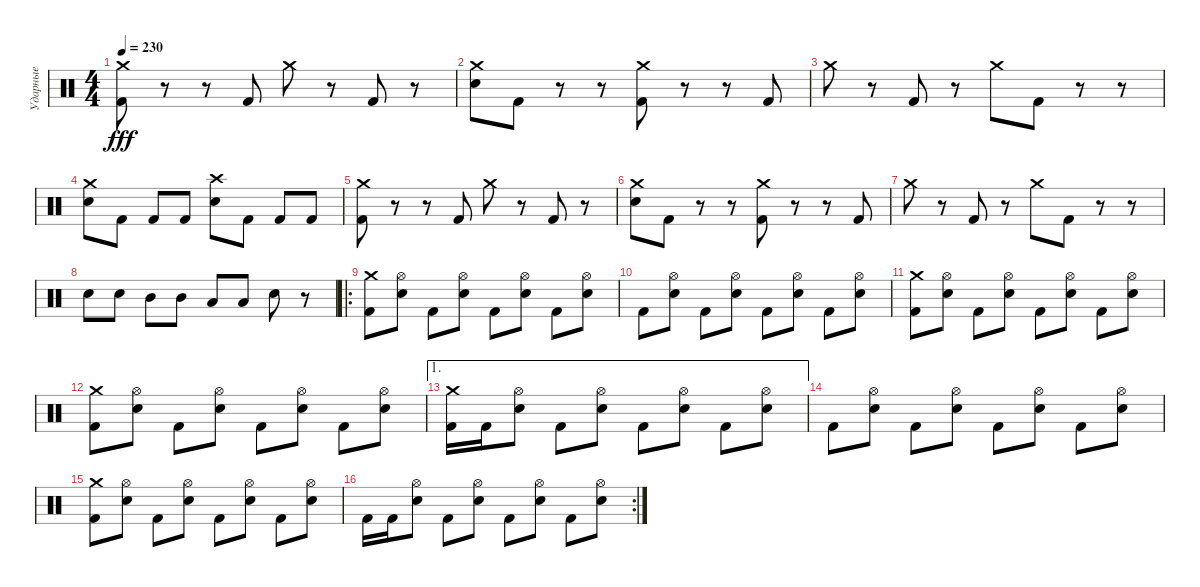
\track ("Ударные" "Ударные") {instrument percussion}
\staff {score}
\articulation defaults
\ts (4 4)
\tempo 230
\clef neutral
\ks c
("Kick (hit) 2" "Crash medium (hit)").8{dy fff} r.8 r.8 "Kick (hit) 2".8 "Crash medium (hit)".8 r.8 "Kick (hit) 2".8 r.8 |
("Electric Snare (hit)" "Crash medium (hit)").8 "Kick (hit) 2".8 r.8 r.8 ("Kick (hit) 2" "Crash medium (hit)").8 r.8 r.8 "Kick (hit) 2".8 |
"Crash medium (hit)".8 r.8 "Kick (hit) 2".8 r.8 "Crash medium (hit)".8 "Kick (hit) 2".8 r.8 r.8 |
("Electric Snare (hit)" "Crash medium (hit)").8 "Kick (hit) 2".8 "Kick (hit) 2".8 "Kick (hit) 2".8 ("Electric Snare (hit)" "Crash high (hit)").8 "Kick (hit) 2".8 "Kick (hit) 2".8 "Kick (hit) 2".8 |
("Kick (hit) 2" "Crash medium (hit)").8 r.8 r.8 "Kick (hit) 2".8 "Crash medium (hit)".8 r.8 "Kick (hit) 2".8 r.8 |
("Electric Snare (hit)" "Crash medium (hit)").8 "Kick (hit) 2".8 r.8 r.8 ("Kick (hit) 2" "Crash medium (hit)").8 r.8 r.8 "Kick (hit) 2".8 |
"Crash medium (hit)".8 r.8 "Kick (hit) 2".8 r.8 "Crash medium (hit)".8 "Kick (hit) 2".8 r.8 r.8 |
"Electric Snare (hit)".8 "Electric Snare (hit)".8 "Mid Tom (hit)".8 "Mid Tom (hit)".8 "Low Tom (hit)".8 "Low Tom (hit)".8 "Electric Snare (hit)".8 r.8 |
\ro
("Kick (hit) 2" "Crash medium (hit)").8 ("Electric Snare (hit)" "Hi-Hat (open)").8 "Kick (hit) 2".8 ("Electric Snare (hit)" "Hi-Hat (open)").8 "Kick (hit) 2".8 ("Electric Snare (hit)" "Hi-Hat (open)").8 "Kick (hit) 2".8 ("Electric Snare (hit)" "Hi-Hat (open)").8 |
"Kick (hit) 2".8 ("Electric Snare (hit)" "Hi-Hat (open)").8 "Kick (hit) 2".8 ("Electric Snare (hit)" "Hi-Hat (open)").8 "Kick (hit) 2".8 ("Electric Snare (hit)" "Hi-Hat (open)").8 "Kick (hit) 2".8 ("Electric Snare (hit)" "Hi-Hat (open)").8 |
("Kick (hit) 2" "Crash medium (hit)").8 ("Electric Snare (hit)" "Hi-Hat (open)").8 "Kick (hit) 2".8 ("Electric Snare (hit)" "Hi-Hat (open)").8 "Kick (hit) 2".8 ("Electric Snare (hit)" "Hi-Hat (open)").8 "Kick (hit) 2".8 ("Electric Snare (hit)" "Hi-Hat (open)").8 |
("Kick (hit) 2" "Crash medium (hit)").8 ("Electric Snare (hit)" "Hi-Hat (open)").8 "Kick (hit) 2".8 ("Electric Snare (hit)" "Hi-Hat (open)").8 "Kick (hit) 2".8 ("Electric Snare (hit)" "Hi-Hat (open)").8 "Kick (hit) 2".8 ("Electric Snare (hit)" "Hi-Hat (open)").8 |
\ae 1
("Kick (hit) 2" "Crash medium (hit)").16 "Kick (hit) 2".16 ("Electric Snare (hit)" "Hi-Hat (open)").8 "Kick (hit) 2".8 ("Electric Snare (hit)" "Hi-Hat (open)").8 "Kick (hit) 2".8 ("Electric Snare (hit)" "Hi-Hat (open)").8 "Kick (hit) 2".8 ("Electric Snare (hit)" "Hi-Hat (open)").8 |
"Kick (hit) 2".8 ("Electric Snare (hit)" "Hi-Hat (open)").8 "Kick (hit) 2".8 ("Electric Snare (hit)" "Hi-Hat (open)").8 "Kick (hit) 2".8 ("Electric Snare (hit)" "Hi-Hat (open)").8 "Kick (hit) 2".8 ("Electric Snare (hit)" "Hi-Hat (open)").8 |
("Kick (hit) 2" "Crash medium (hit)").8 ("Electric Snare (hit)" "Hi-Hat (open)").8 "Kick (hit) 2".8 ("Electric Snare (hit)" "Hi-Hat (open)").8 "Kick (hit) 2".8 ("Electric Snare (hit)" "Hi-Hat (open)").8 "Kick (hit) 2".8 ("Electric Snare (hit)" "Hi-Hat (open)").8 |
\rc 2 "Kick (hit) 2".16 "Kick (hit) 2".16
("Electric Snare (hit)" "Hi-Hat (open)").8 "Kick (hit) 2".8 ("Electric Snare (hit)" "Hi-Hat (open)").8 "Kick (hit) 2".8 ("Electric Snare (hit)" "Hi-Hat (open)").8 "Kick (hit) 2".8 ("Electric Snare (hit)" "Hi-Hat (open)").8
